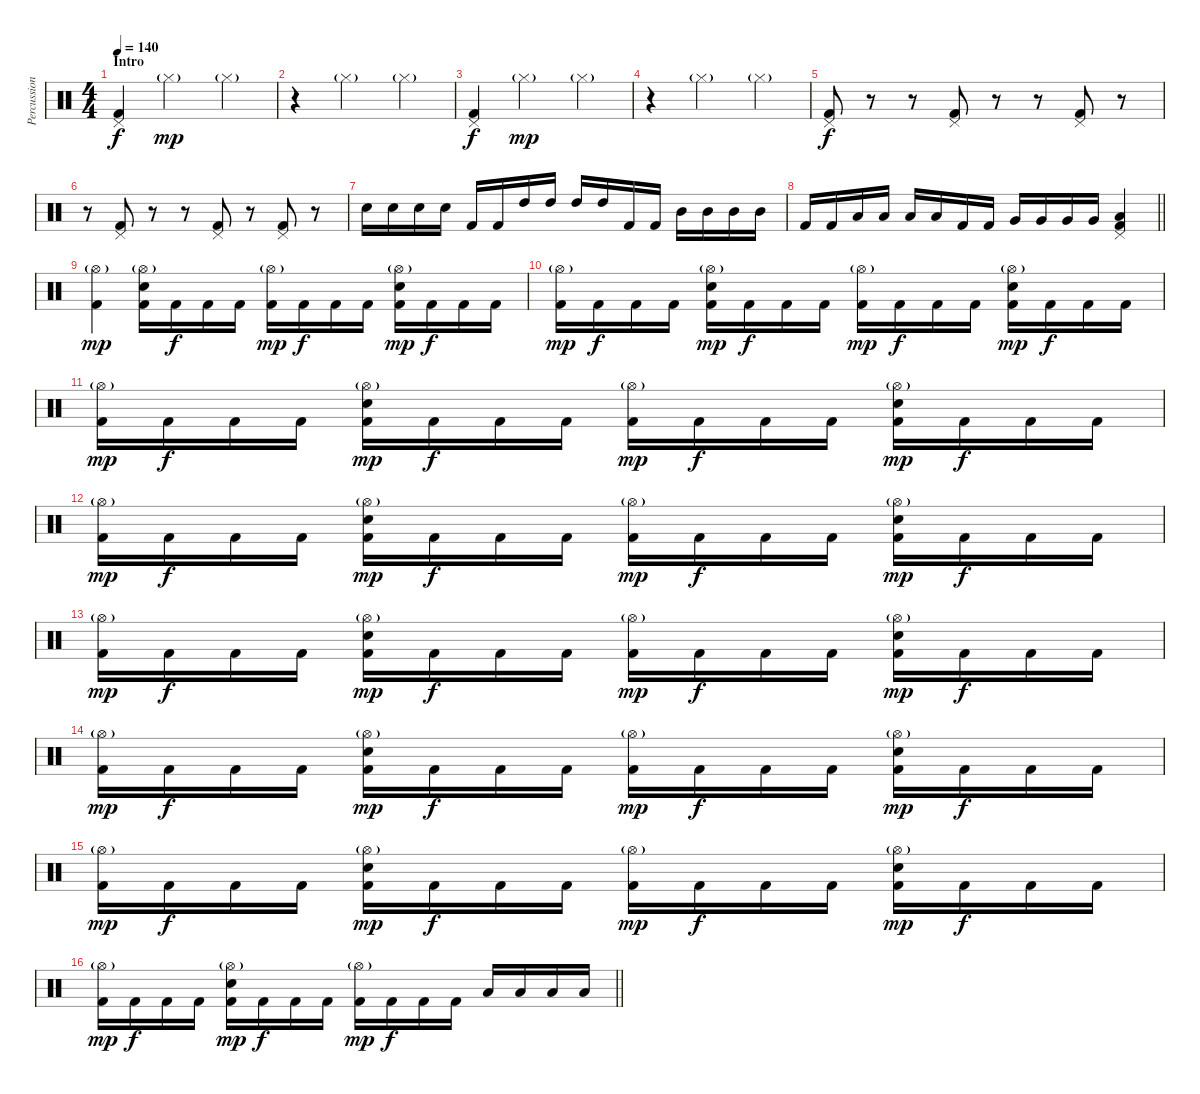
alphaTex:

\track ("Percussions" "Percussion") {instrument percussion}
\staff {score}
\articulation defaults
\ts (4 4)
\section ("" "Intro")
\tempo 140
\clef neutral
\ks c
("Pedal Hi-Hat (hit)" "Kick (hit) 2").4{dy f} "Hi-Hat (closed)"{g}.2{dy mp} "Hi-Hat (closed)"{g}.4 |
r.4 "Hi-Hat (closed)"{g}.2 "Hi-Hat (closed)"{g}.4 |
("Pedal Hi-Hat (hit)" "Kick (hit) 2").4{dy f} "Hi-Hat (closed)"{g}.2{dy mp} "Hi-Hat (closed)"{g}.4 |
r.4 "Hi-Hat (closed)"{g}.2 "Hi-Hat (closed)"{g}.4 |
("Pedal Hi-Hat (hit)" "Kick (hit) 2").8{dy f} r.8 r.8 ("Pedal Hi-Hat (hit)" "Kick (hit) 2").8 r.8 r.8 ("Pedal Hi-Hat (hit)" "Kick (hit) 2").8 r.8 |
r.8 ("Pedal Hi-Hat (hit)" "Kick (hit) 2").8 r.8 r.8 ("Pedal Hi-Hat (hit)" "Kick (hit) 2").8 r.8 ("Pedal Hi-Hat (hit)" "Kick (hit) 2").8 r.8 |
"Electric Snare (hit)".16 "Electric Snare (hit)".16 "Electric Snare (hit)".16 "Electric Snare (hit)".16 "Kick (hit) 2".16 "Kick (hit) 2".16 "High Tom (hit)".16 "High Tom (hit)".16 "High Tom (hit)".16 "High Tom (hit)".16 "Kick (hit) 2".16 "Kick (hit) 2".16 "Mid Tom (hit)".16 "Mid Tom (hit)".16 "Mid Tom (hit)".16 "Mid Tom (hit)".16 |
\barLineRight lightlight "Kick (hit) 2".16 "Kick (hit) 2".16 "Low Tom (hit)".16 "Low Tom (hit)".16 "Low Tom (hit)".16 "Low Tom (hit)".16 "Kick (hit) 2".16 "Kick (hit) 2".16 "Very Low Tom (hit)".16 "Very Low Tom (hit)".16 "Very Low Tom (hit)".16 "Very Low Tom (hit)".16
("Pedal Hi-Hat (hit)" "Low Floor Tom (hit)" "Kick (hit) 2").4 |
("Hi-Hat (open)"{g} "Kick (hit) 2").4{dy mp} ("Hi-Hat (open)"{g} "Electric Snare (hit)" "Kick (hit) 2").16 "Kick (hit) 2".16{dy f} "Kick (hit) 2".16 "Kick (hit) 2".16 ("Hi-Hat (open)"{g} "Kick (hit) 2").16{dy mp} "Kick (hit) 2".16{dy f} "Kick (hit) 2".16 "Kick (hit) 2".16 ("Hi-Hat (open)"{g} "Electric Snare (hit)" "Kick (hit) 2").16{dy mp} "Kick (hit) 2".16{dy f} "Kick (hit) 2".16 "Kick (hit) 2".16 |
("Hi-Hat (open)"{g} "Kick (hit) 2").16{dy mp} "Kick (hit) 2".16{dy f} "Kick (hit) 2".16 "Kick (hit) 2".16 ("Hi-Hat (open)"{g} "Electric Snare (hit)" "Kick (hit) 2").16{dy mp} "Kick (hit) 2".16{dy f} "Kick (hit) 2".16 "Kick (hit) 2".16 ("Hi-Hat (open)"{g} "Kick (hit) 2").16{dy mp} "Kick (hit) 2".16{dy f} "Kick (hit) 2".16 "Kick (hit) 2".16 ("Hi-Hat (open)"{g} "Electric Snare (hit)" "Kick (hit) 2").16{dy mp} "Kick (hit) 2".16{dy f} "Kick (hit) 2".16 "Kick (hit) 2".16 |
("Hi-Hat (open)"{g} "Kick (hit) 2").16{dy mp} "Kick (hit) 2".16{dy f} "Kick (hit) 2".16 "Kick (hit) 2".16 ("Hi-Hat (open)"{g} "Electric Snare (hit)" "Kick (hit) 2").16{dy mp} "Kick (hit) 2".16{dy f} "Kick (hit) 2".16 "Kick (hit) 2".16 ("Hi-Hat (open)"{g} "Kick (hit) 2").16{dy mp} "Kick (hit) 2".16{dy f} "Kick (hit) 2".16 "Kick (hit) 2".16 ("Hi-Hat (open)"{g} "Electric Snare (hit)" "Kick (hit) 2").16{dy mp} "Kick (hit) 2".16{dy f} "Kick (hit) 2".16 "Kick (hit) 2".16 |
("Hi-Hat (open)"{g} "Kick (hit) 2").16{dy mp} "Kick (hit) 2".16{dy f} "Kick (hit) 2".16 "Kick (hit) 2".16 ("Hi-Hat (open)"{g} "Electric Snare (hit)" "Kick (hit) 2").16{dy mp} "Kick (hit) 2".16{dy f} "Kick (hit) 2".16 "Kick (hit) 2".16 ("Hi-Hat (open)"{g} "Kick (hit) 2").16{dy mp} "Kick (hit) 2".16{dy f} "Kick (hit) 2".16 "Kick (hit) 2".16 ("Hi-Hat (open)"{g} "Electric Snare (hit)" "Kick (hit) 2").16{dy mp} "Kick (hit) 2".16{dy f} "Kick (hit) 2".16 "Kick (hit) 2".16 |
("Hi-Hat (open)"{g} "Kick (hit) 2").16{dy mp} "Kick (hit) 2".16{dy f} "Kick (hit) 2".16 "Kick (hit) 2".16 ("Hi-Hat (open)"{g} "Electric Snare (hit)" "Kick (hit) 2").16{dy mp} "Kick (hit) 2".16{dy f} "Kick (hit) 2".16 "Kick (hit) 2".16 ("Hi-Hat (open)"{g} "Kick (hit) 2").16{dy mp} "Kick (hit) 2".16{dy f} "Kick (hit) 2".16 "Kick (hit) 2".16 ("Hi-Hat (open)"{g} "Electric Snare (hit)" "Kick (hit) 2").16{dy mp} "Kick (hit) 2".16{dy f} "Kick (hit) 2".16 "Kick (hit) 2".16 |
("Hi-Hat (open)"{g} "Kick (hit) 2").16{dy mp} "Kick (hit) 2".16{dy f} "Kick (hit) 2".16 "Kick (hit) 2".16 ("Hi-Hat (open)"{g} "Electric Snare (hit)" "Kick (hit) 2").16{dy mp} "Kick (hit) 2".16{dy f} "Kick (hit) 2".16 "Kick (hit) 2".16 ("Hi-Hat (open)"{g} "Kick (hit) 2").16{dy mp} "Kick (hit) 2".16{dy f} "Kick (hit) 2".16 "Kick (hit) 2".16 ("Hi-Hat (open)"{g} "Electric Snare (hit)" "Kick (hit) 2").16{dy mp} "Kick (hit) 2".16{dy f} "Kick (hit) 2".16 "Kick (hit) 2".16 |
("Hi-Hat (open)"{g} "Kick (hit) 2").16{dy mp} "Kick (hit) 2".16{dy f} "Kick (hit) 2".16 "Kick (hit) 2".16 ("Hi-Hat (open)"{g} "Electric Snare (hit)" "Kick (hit) 2").16{dy mp} "Kick (hit) 2".16{dy f} "Kick (hit) 2".16 "Kick (hit) 2".16 ("Hi-Hat (open)"{g} "Kick (hit) 2").16{dy mp} "Kick (hit) 2".16{dy f} "Kick (hit) 2".16 "Kick (hit) 2".16 ("Hi-Hat (open)"{g} "Electric Snare (hit)" "Kick (hit) 2").16{dy mp} "Kick (hit) 2".16{dy f} "Kick (hit) 2".16 "Kick (hit) 2".16 |
\barLineRight lightlight
("Hi-Hat (open)"{g} "Kick (hit) 2").16{dy mp} "Kick (hit) 2".16{dy f} "Kick (hit) 2".16 "Kick (hit) 2".16 ("Hi-Hat (open)"{g} "Electric Snare (hit)" "Kick (hit) 2").16{dy mp} "Kick (hit) 2".16{dy f} "Kick (hit) 2".16 "Kick (hit) 2".16 ("Hi-Hat (open)"{g} "Kick (hit) 2").16{dy mp} "Kick (hit) 2".16{dy f} "Kick (hit) 2".16 "Kick (hit) 2".16 "Low Tom (hit)".16 "Low Tom (hit)".16 "Low Tom (hit)".16 "Low Tom (hit)".16
